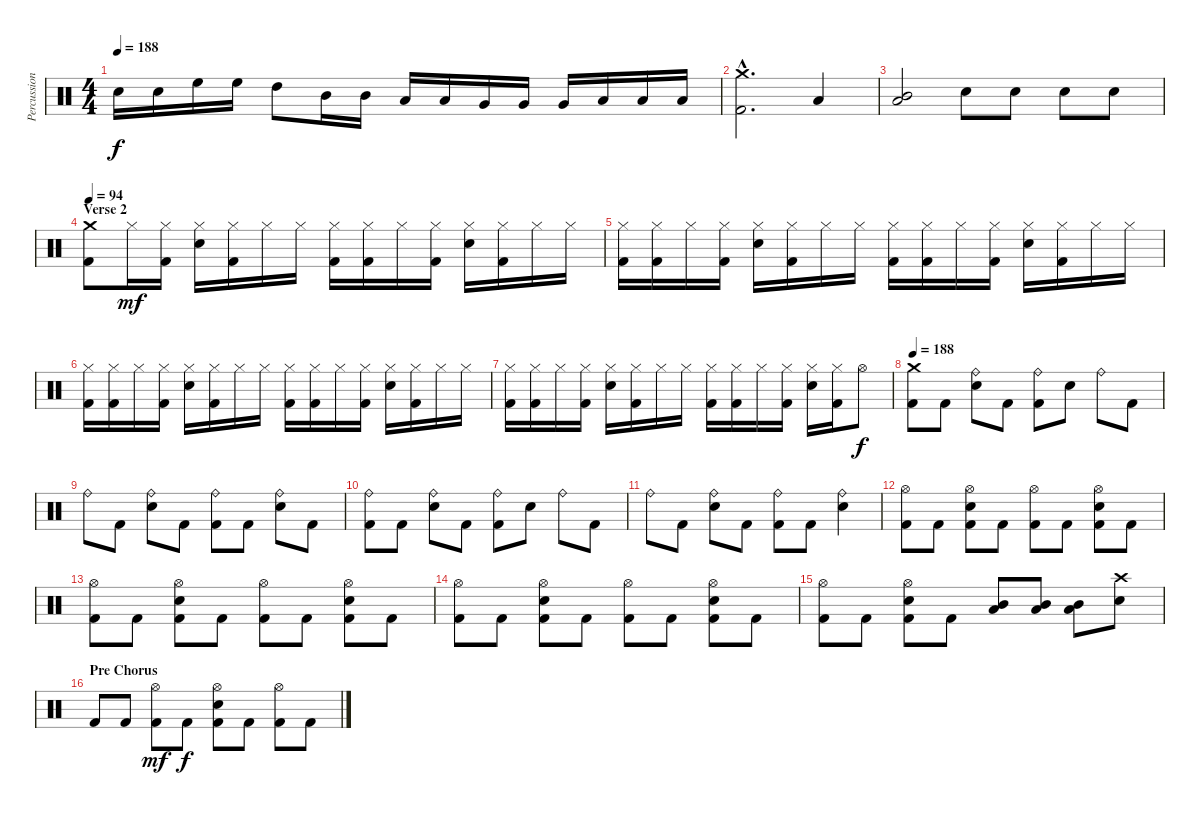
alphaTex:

\track ("Percussions" "Percussion") {instrument percussion}
\staff {score}
\articulation defaults
\ts (4 4)
\tempo 188
\clef neutral
\ks c "Snare (hit) 2".16{dy f} "Snare (hit) 2".16 "High Floor Tom (hit)".16 "High Floor Tom (hit)".16 "High Tom (hit)".8 "Mid Tom (hit)".16 "Mid Tom (hit)".16 "Low Tom (hit)".16 "Low Tom (hit)".16 "Very Low Tom (hit)".16 "Very Low Tom (hit)".16 "Very Low Tom (hit)".16 "Low Floor Tom (hit)".16 "Low Floor Tom (hit)".16 "Low Floor Tom (hit)".16
|
("Crash medium (hit)"{hac} "Kick (hit) 2"{hac}).2{d} "Low Tom (hit)".4 |
("Mid Tom (hit)" "Low Tom (hit)").2 "Snare (hit) 2".8 "Snare (hit) 2".8 "Snare (hit) 2".8 "Snare (hit) 2".8 |
\section ("" "Verse 2")
\tempo 94
("Crash medium (hit)" "Kick (hit) 2").8 "Hi-Hat (closed)".16{dy mf} ("Hi-Hat (closed)" "Kick (hit) 2").16 ("Hi-Hat (closed)" "Snare (hit) 2").16 ("Hi-Hat (closed)" "Kick (hit) 2").16 "Hi-Hat (closed)".16 "Hi-Hat (closed)".16 ("Hi-Hat (closed)" "Kick (hit) 2").16 ("Hi-Hat (closed)" "Kick (hit) 2").16 "Hi-Hat (closed)".16 ("Hi-Hat (closed)" "Kick (hit) 2").16 ("Hi-Hat (closed)" "Snare (hit) 2").16 ("Hi-Hat (closed)" "Kick (hit) 2").16 "Hi-Hat (closed)".16 "Hi-Hat (closed)".16 |
("Hi-Hat (closed)" "Kick (hit) 2").16 ("Hi-Hat (closed)" "Kick (hit) 2").16 "Hi-Hat (closed)".16 ("Hi-Hat (closed)" "Kick (hit) 2").16 ("Hi-Hat (closed)" "Snare (hit) 2").16 ("Hi-Hat (closed)" "Kick (hit) 2").16 "Hi-Hat (closed)".16 "Hi-Hat (closed)".16 ("Hi-Hat (closed)" "Kick (hit) 2").16 ("Hi-Hat (closed)" "Kick (hit) 2").16 "Hi-Hat (closed)".16 ("Hi-Hat (closed)" "Kick (hit) 2").16 ("Hi-Hat (closed)" "Snare (hit) 2").16 ("Hi-Hat (closed)" "Kick (hit) 2").16 "Hi-Hat (closed)".16 "Hi-Hat (closed)".16 |
("Hi-Hat (closed)" "Kick (hit) 2").16 ("Hi-Hat (closed)" "Kick (hit) 2").16 "Hi-Hat (closed)".16 ("Hi-Hat (closed)" "Kick (hit) 2").16 ("Hi-Hat (closed)" "Snare (hit) 2").16 ("Hi-Hat (closed)" "Kick (hit) 2").16 "Hi-Hat (closed)".16 "Hi-Hat (closed)".16 ("Hi-Hat (closed)" "Kick (hit) 2").16 ("Hi-Hat (closed)" "Kick (hit) 2").16 "Hi-Hat (closed)".16 ("Hi-Hat (closed)" "Kick (hit) 2").16 ("Hi-Hat (closed)" "Snare (hit) 2").16 ("Hi-Hat (closed)" "Kick (hit) 2").16 "Hi-Hat (closed)".16 "Hi-Hat (closed)".16 |
("Hi-Hat (closed)" "Kick (hit) 2").16 ("Hi-Hat (closed)" "Kick (hit) 2").16 "Hi-Hat (closed)".16 ("Hi-Hat (closed)" "Kick (hit) 2").16 ("Hi-Hat (closed)" "Snare (hit) 2").16 ("Hi-Hat (closed)" "Kick (hit) 2").16 "Hi-Hat (closed)".16 "Hi-Hat (closed)".16 ("Hi-Hat (closed)" "Kick (hit) 2").16 ("Hi-Hat (closed)" "Kick (hit) 2").16 "Hi-Hat (closed)".16 ("Hi-Hat (closed)" "Kick (hit) 2").16 ("Hi-Hat (closed)" "Snare (hit) 2").16 ("Hi-Hat (closed)" "Kick (hit) 2").16 "Hi-Hat (open)".8{dy f} |
\tempo 188
("Crash medium (hit)" "Kick (hit) 2").8 "Kick (hit) 2".8 ("Ride (bell)" "Snare (hit) 2").8 "Kick (hit) 2".8 ("Ride (bell)" "Kick (hit) 2").8 "Snare (hit) 2".8 "Ride (bell)".8 "Kick (hit) 2".8 |
"Ride (bell)".8 "Kick (hit) 2".8 ("Ride (bell)" "Snare (hit) 2").8 "Kick (hit) 2".8 ("Ride (bell)" "Kick (hit) 2").8 "Kick (hit) 2".8 ("Ride (bell)" "Snare (hit) 2").8 "Kick (hit) 2".8 |
("Ride (bell)" "Kick (hit) 2").8 "Kick (hit) 2".8 ("Ride (bell)" "Snare (hit) 2").8 "Kick (hit) 2".8 ("Ride (bell)" "Kick (hit) 2").8 "Snare (hit) 2".8 "Ride (bell)".8 "Kick (hit) 2".8 |
"Ride (bell)".8 "Kick (hit) 2".8 ("Ride (bell)" "Snare (hit) 2").8 "Kick (hit) 2".8 ("Ride (bell)" "Kick (hit) 2").8 "Kick (hit) 2".8 ("Ride (bell)" "Snare (hit) 2").4 |
("Hi-Hat (open)" "Kick (hit) 2").8 "Kick (hit) 2".8 ("Hi-Hat (open)" "Snare (hit) 2" "Kick (hit) 2").8 "Kick (hit) 2".8 ("Hi-Hat (open)" "Kick (hit) 2").8 "Kick (hit) 2".8 ("Hi-Hat (open)" "Snare (hit) 2" "Kick (hit) 2").8 "Kick (hit) 2".8 |
("Hi-Hat (open)" "Kick (hit) 2").8 "Kick (hit) 2".8 ("Hi-Hat (open)" "Snare (hit) 2" "Kick (hit) 2").8 "Kick (hit) 2".8 ("Hi-Hat (open)" "Kick (hit) 2").8 "Kick (hit) 2".8 ("Hi-Hat (open)" "Snare (hit) 2" "Kick (hit) 2").8 "Kick (hit) 2".8 |
("Hi-Hat (open)" "Kick (hit) 2").8 "Kick (hit) 2".8 ("Hi-Hat (open)" "Snare (hit) 2" "Kick (hit) 2").8 "Kick (hit) 2".8 ("Hi-Hat (open)" "Kick (hit) 2").8 "Kick (hit) 2".8 ("Hi-Hat (open)" "Snare (hit) 2" "Kick (hit) 2").8 "Kick (hit) 2".8 |
("Hi-Hat (open)" "Kick (hit) 2").8 "Kick (hit) 2".8 ("Hi-Hat (open)" "Snare (hit) 2" "Kick (hit) 2").8 "Kick (hit) 2".8 ("Mid Tom (hit)" "Low Tom (hit)").8 ("Mid Tom (hit)" "Low Tom (hit)").8 ("Mid Tom (hit)" "Low Tom (hit)").8 ("Crash high (hit)" "Snare (hit) 2").8 |
\section ("" "Pre Chorus")
"Kick (hit) 2".8 "Kick (hit) 2".8 ("Hi-Hat (open)" "Kick (hit) 2").8{dy mf} "Kick (hit) 2".8{dy f} ("Hi-Hat (open)" "Snare (hit) 2" "Kick (hit) 2").8 "Kick (hit) 2".8 ("Hi-Hat (open)" "Kick (hit) 2").8 "Kick (hit) 2".8
